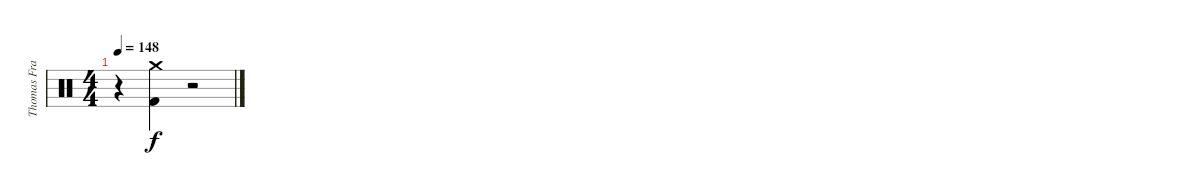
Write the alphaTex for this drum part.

\track ("Thomas Franke" "Thomas Fra") {instrument percussion}
\staff {score}
\articulation defaults
\ts (4 4)
\tempo 148
\clef neutral
\ks c
r.4{dy f} ("Kick (hit) 2" "Crash medium (hit)").4 r.2
